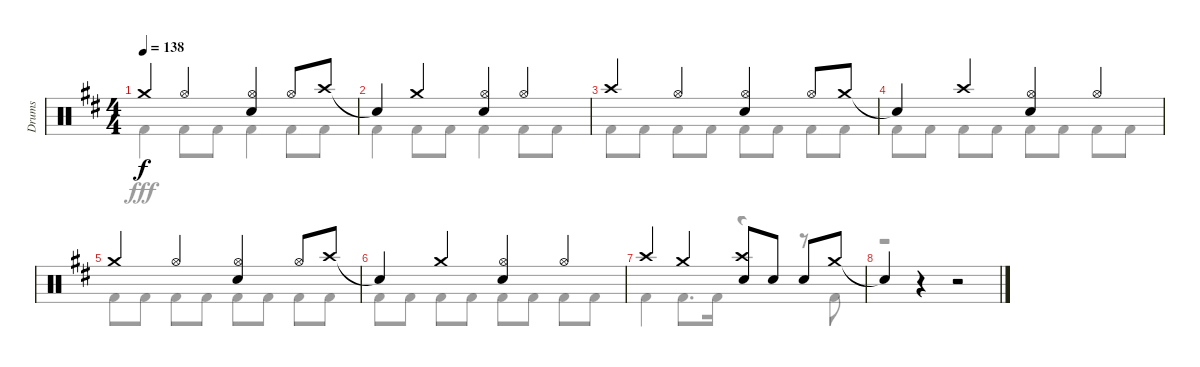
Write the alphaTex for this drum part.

\track ("Drums" "Drums") {instrument percussion}
\staff {score}
\articulation defaults
\voice
\ts (4 4)
\tempo 138
\clef neutral
\ks d "Crash medium (hit)".4{dy f} "Hi-Hat (open)".4
("Hi-Hat (open)" "Snare (hit) 2").4 "Hi-Hat (open)".8 "Crash high (hit)".8 |
"Snare (hit)"{t}.4 "Crash medium (hit)".4 ("Hi-Hat (open)" "Snare (hit) 2").4 "Hi-Hat (open)".4 |
"Crash high (hit)".4 "Hi-Hat (open)".4 ("Hi-Hat (open)" "Snare (hit) 2").4 "Hi-Hat (open)".8 "Crash medium (hit)".8 |
"Snare (hit)"{t}.4 "Crash high (hit)".4 ("Hi-Hat (open)" "Snare (hit) 2").4 "Hi-Hat (open)".4 |
"Crash medium (hit)".4 "Hi-Hat (open)".4 ("Hi-Hat (open)" "Snare (hit) 2").4 "Hi-Hat (open)".8 "Crash high (hit)".8 |
"Snare (hit)"{t}.4 "Crash medium (hit)".4 ("Hi-Hat (open)" "Snare (hit) 2").4 "Hi-Hat (open)".4 |
"Crash high (hit)".4 "Crash medium (hit)".4 ("Crash high (hit)" "Snare (hit) 2").8 "Snare (hit) 2".8 "Snare (hit) 2".8 "Crash medium (hit)".8 |
"Snare (hit)"{t}.4 r.4 r.2
\voice
\clef neutral
\ottava regular
\simile none
\ks d "Kick (hit) 2".4{dy fff} "Kick (hit) 2".8 "Kick (hit) 2".8 "Kick (hit) 2".4 "Kick (hit) 2".8 "Kick (hit) 2".8
|
"Kick (hit) 2".4 "Kick (hit) 2".8 "Kick (hit) 2".8 "Kick (hit) 2".4 "Kick (hit) 2".8 "Kick (hit) 2".8 |
"Kick (hit) 2".8 "Kick (hit) 2".8 "Kick (hit) 2".8 "Kick (hit) 2".8 "Kick (hit) 2".8 "Kick (hit) 2".8 "Kick (hit) 2".8 "Kick (hit) 2".8 |
"Kick (hit) 2".8 "Kick (hit) 2".8 "Kick (hit) 2".8 "Kick (hit) 2".8 "Kick (hit) 2".8 "Kick (hit) 2".8 "Kick (hit) 2".8 "Kick (hit) 2".8 |
"Kick (hit) 2".8 "Kick (hit) 2".8 "Kick (hit) 2".8 "Kick (hit) 2".8 "Kick (hit) 2".8 "Kick (hit) 2".8 "Kick (hit) 2".8 "Kick (hit) 2".8 |
"Kick (hit) 2".8 "Kick (hit) 2".8 "Kick (hit) 2".8 "Kick (hit) 2".8 "Kick (hit) 2".8 "Kick (hit) 2".8 "Kick (hit) 2".8 "Kick (hit) 2".8 |
"Kick (hit) 2".4 "Kick (hit) 2".8{d} "Kick (hit) 2".16 r.4 r.8 "Kick (hit) 2".8 |
r.1
